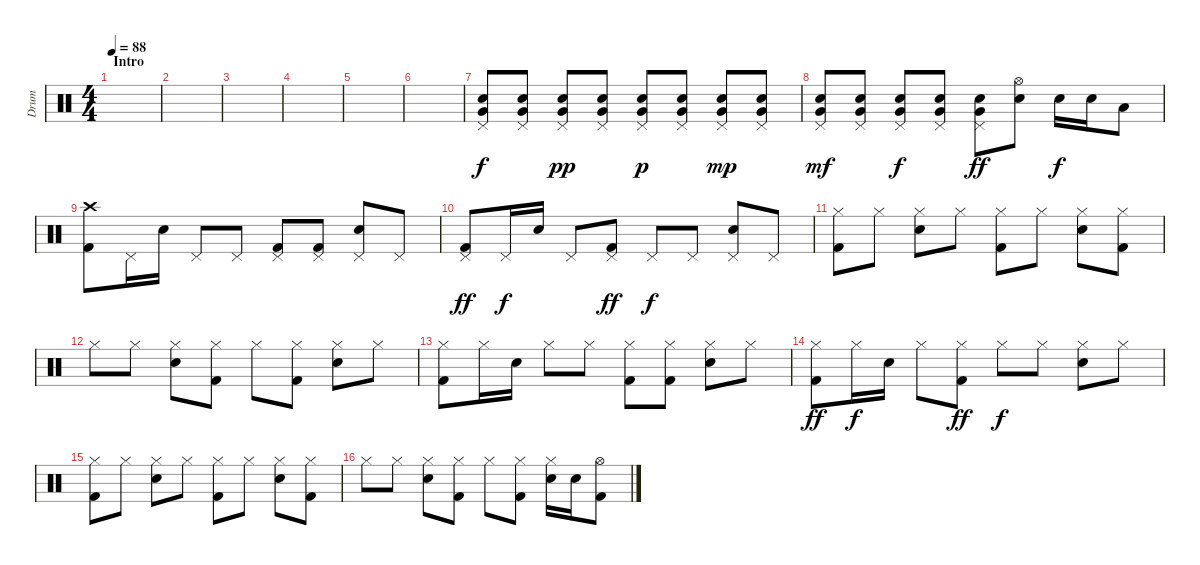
\track ("Drum" "Drum") {instrument percussion}
\staff {score}
\articulation defaults
\ts (4 4)
\section ("" "Intro")
\tempo 88
\clef neutral
\ks c
|
|
|
|
|
|
("Pedal Hi-Hat (hit)" "Electric Snare (hit)" "Very Low Tom (hit)").8 ("Pedal Hi-Hat (hit)" "Electric Snare (hit)" "Very Low Tom (hit)").8 ("Pedal Hi-Hat (hit)" "Electric Snare (hit)" "Very Low Tom (hit)").8{dy pp} ("Pedal Hi-Hat (hit)" "Electric Snare (hit)" "Very Low Tom (hit)").8 ("Pedal Hi-Hat (hit)" "Electric Snare (hit)" "Very Low Tom (hit)").8{dy p} ("Pedal Hi-Hat (hit)" "Electric Snare (hit)" "Very Low Tom (hit)").8 ("Pedal Hi-Hat (hit)" "Electric Snare (hit)" "Very Low Tom (hit)").8{dy mp} ("Pedal Hi-Hat (hit)" "Electric Snare (hit)" "Very Low Tom (hit)").8 |
("Pedal Hi-Hat (hit)" "Electric Snare (hit)" "Very Low Tom (hit)").8{dy mf} ("Pedal Hi-Hat (hit)" "Electric Snare (hit)" "Very Low Tom (hit)").8 ("Pedal Hi-Hat (hit)" "Electric Snare (hit)" "Very Low Tom (hit)").8{dy f} ("Pedal Hi-Hat (hit)" "Electric Snare (hit)" "Very Low Tom (hit)").8 ("Pedal Hi-Hat (hit)" "Electric Snare (hit)" "Very Low Tom (hit)").8{dy ff} ("Hi-Hat (open)" "Electric Snare (hit)").8 "Electric Snare (hit)".16{dy f} "Electric Snare (hit)".16 "Low Tom (hit)".8 |
("Crash high (hit)" "Kick (hit) 2").8 "Pedal Hi-Hat (hit)".16 "Electric Snare (hit)".16 "Pedal Hi-Hat (hit)".8 "Pedal Hi-Hat (hit)".8 ("Pedal Hi-Hat (hit)" "Kick (hit) 2").8 ("Pedal Hi-Hat (hit)" "Kick (hit) 2").8 ("Pedal Hi-Hat (hit)" "Electric Snare (hit)").8 "Pedal Hi-Hat (hit)".8 |
("Pedal Hi-Hat (hit)" "Kick (hit) 2").8{dy ff} "Pedal Hi-Hat (hit)".16{dy f} "Electric Snare (hit)".16 "Pedal Hi-Hat (hit)".8 ("Pedal Hi-Hat (hit)" "Kick (hit) 2").8{dy ff} "Pedal Hi-Hat (hit)".8{dy f} "Pedal Hi-Hat (hit)".8 ("Pedal Hi-Hat (hit)" "Electric Snare (hit)").8 "Pedal Hi-Hat (hit)".8 |
("Hi-Hat (closed)" "Kick (hit) 2").8 "Hi-Hat (closed)".8 ("Hi-Hat (closed)" "Electric Snare (hit)").8 "Hi-Hat (closed)".8 ("Hi-Hat (closed)" "Kick (hit) 2").8 "Hi-Hat (closed)".8 ("Hi-Hat (closed)" "Electric Snare (hit)").8 ("Hi-Hat (closed)" "Kick (hit) 2").8 |
"Hi-Hat (closed)".8 "Hi-Hat (closed)".8 ("Hi-Hat (closed)" "Electric Snare (hit)").8 ("Hi-Hat (closed)" "Kick (hit) 2").8 "Hi-Hat (closed)".8 ("Hi-Hat (closed)" "Kick (hit) 2").8 ("Hi-Hat (closed)" "Electric Snare (hit)").8 "Hi-Hat (closed)".8 |
("Hi-Hat (closed)" "Kick (hit) 2").8 "Hi-Hat (closed)".16 "Electric Snare (hit)".16 "Hi-Hat (closed)".8 "Hi-Hat (closed)".8 ("Hi-Hat (closed)" "Kick (hit) 2").8 ("Hi-Hat (closed)" "Kick (hit) 2").8 ("Hi-Hat (closed)" "Electric Snare (hit)").8 "Hi-Hat (closed)".8 |
("Hi-Hat (closed)" "Kick (hit) 2").8{dy ff} "Hi-Hat (closed)".16{dy f} "Electric Snare (hit)".16 "Hi-Hat (closed)".8 ("Hi-Hat (closed)" "Kick (hit) 2").8{dy ff} "Hi-Hat (closed)".8{dy f} "Hi-Hat (closed)".8 ("Hi-Hat (closed)" "Electric Snare (hit)").8 "Hi-Hat (closed)".8 |
("Hi-Hat (closed)" "Kick (hit) 2").8 "Hi-Hat (closed)".8 ("Hi-Hat (closed)" "Electric Snare (hit)").8 "Hi-Hat (closed)".8 ("Hi-Hat (closed)" "Kick (hit) 2").8 "Hi-Hat (closed)".8 ("Hi-Hat (closed)" "Electric Snare (hit)").8 ("Hi-Hat (closed)" "Kick (hit) 2").8 |
"Hi-Hat (closed)".8 "Hi-Hat (closed)".8 ("Hi-Hat (closed)" "Electric Snare (hit)").8 ("Hi-Hat (closed)" "Kick (hit) 2").8 "Hi-Hat (closed)".8 ("Hi-Hat (closed)" "Kick (hit) 2").8 ("Hi-Hat (closed)" "Electric Snare (hit)").16 "Electric Snare (hit)".16 ("Hi-Hat (open)" "Kick (hit) 2").8
